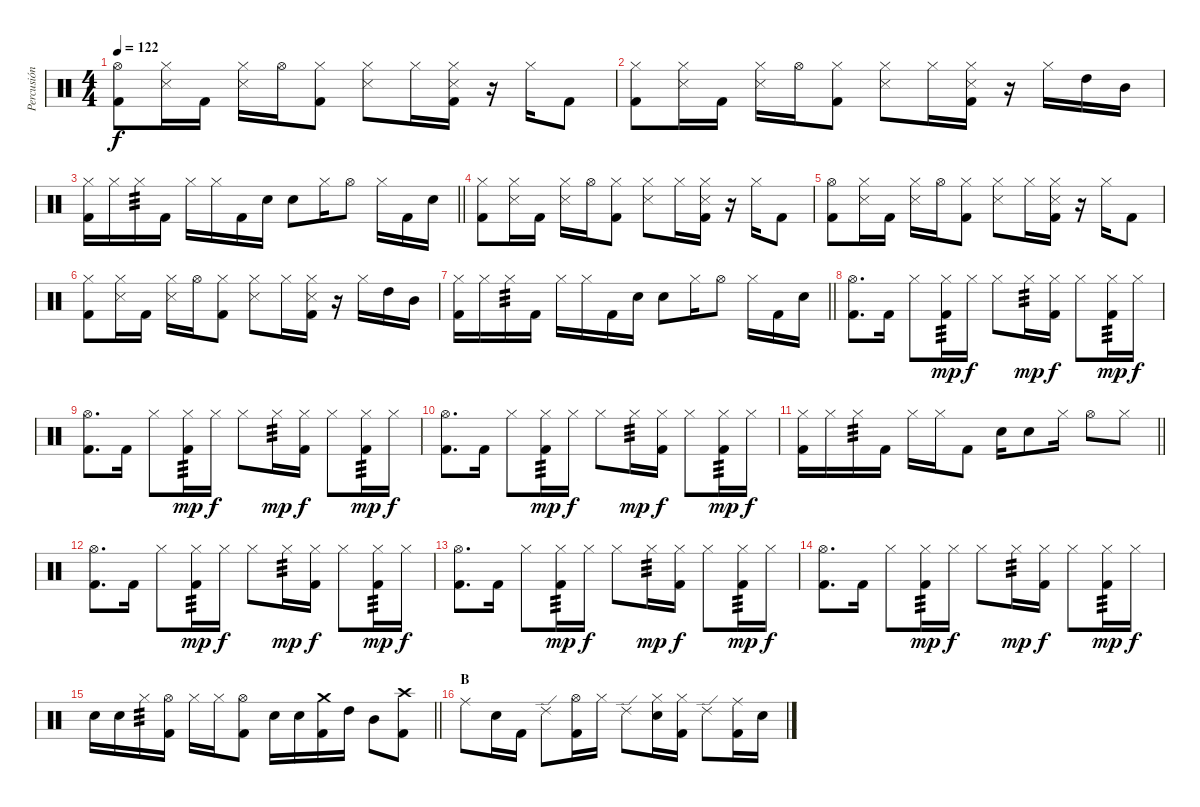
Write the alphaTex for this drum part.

\track ("Percusión" "Percusión") {instrument percussion}
\staff {score}
\articulation defaults
\ts (4 4)
\tempo 122
\clef neutral
\ks c
("Hi-Hat (open)" "Kick (hit) 2").8{dy f} ("Hi-Hat (closed)" "Snare (side stick) 3").16 "Kick (hit) 2".16 ("Hi-Hat (closed)" "Snare (side stick) 3").16 "Hi-Hat (open)".16 ("Hi-Hat (closed)" "Kick (hit) 2").8 ("Hi-Hat (closed)" "Snare (side stick) 3").8 "Hi-Hat (closed)".16 ("Snare (side stick) 3" "Hi-Hat (closed)" "Kick (hit) 2").16 r.16 "Hi-Hat (closed)".16 "Kick (hit) 2".8 |
("Hi-Hat (closed)" "Kick (hit) 2").8 ("Hi-Hat (closed)" "Snare (side stick) 3").16 "Kick (hit) 2".16 ("Hi-Hat (closed)" "Snare (side stick) 3").16 "Hi-Hat (open)".16 ("Hi-Hat (closed)" "Kick (hit) 2").8 ("Hi-Hat (closed)" "Snare (side stick) 3").8 "Hi-Hat (closed)".16 ("Snare (side stick) 3" "Hi-Hat (closed)" "Kick (hit) 2").16 r.16 "Hi-Hat (closed)".16 "High Tom (hit)".16 "Mid Tom (hit)".16 |
\barLineRight lightlight
("Hi-Hat (closed)" "Kick (hit) 2").16 "Hi-Hat (closed)".16 "Hi-Hat (closed)".16{tp 3} "Kick (hit) 2".16 "Hi-Hat (closed)".16 "Hi-Hat (closed)".16 "Kick (hit) 2".16 "Electric Snare (hit)".16 "Electric Snare (hit)".8 "Hi-Hat (closed)".16 "Hi-Hat (open)".8 "Hi-Hat (closed)".16 "Kick (hit) 2".16 "Electric Snare (hit)".16 |
("Hi-Hat (closed)" "Kick (hit) 2").8 ("Hi-Hat (closed)" "Snare (side stick) 3").16 "Kick (hit) 2".16 ("Hi-Hat (closed)" "Snare (side stick) 3").16 "Hi-Hat (open)".16 ("Hi-Hat (closed)" "Kick (hit) 2").8 ("Hi-Hat (closed)" "Snare (side stick) 3").8 "Hi-Hat (closed)".16 ("Snare (side stick) 3" "Hi-Hat (closed)" "Kick (hit) 2").16 r.16 "Hi-Hat (closed)".16 "Kick (hit) 2".8 |
("Hi-Hat (open)" "Kick (hit) 2").8 ("Hi-Hat (closed)" "Snare (side stick) 3").16 "Kick (hit) 2".16 ("Hi-Hat (closed)" "Snare (side stick) 3").16 "Hi-Hat (open)".16 ("Hi-Hat (closed)" "Kick (hit) 2").8 ("Hi-Hat (closed)" "Snare (side stick) 3").8 "Hi-Hat (closed)".16 ("Snare (side stick) 3" "Hi-Hat (closed)" "Kick (hit) 2").16 r.16 "Hi-Hat (closed)".16 "Kick (hit) 2".8 |
("Hi-Hat (closed)" "Kick (hit) 2").8 ("Hi-Hat (closed)" "Snare (side stick) 3").16 "Kick (hit) 2".16 ("Hi-Hat (closed)" "Snare (side stick) 3").16 "Hi-Hat (open)".16 ("Hi-Hat (closed)" "Kick (hit) 2").8 ("Hi-Hat (closed)" "Snare (side stick) 3").8 "Hi-Hat (closed)".16 ("Snare (side stick) 3" "Hi-Hat (closed)" "Kick (hit) 2").16 r.16 "Hi-Hat (closed)".16 "High Tom (hit)".16 "Mid Tom (hit)".16 |
\barLineRight lightlight
("Hi-Hat (closed)" "Kick (hit) 2").16 "Hi-Hat (closed)".16 "Hi-Hat (closed)".16{tp 3} "Kick (hit) 2".16 "Hi-Hat (closed)".16 "Hi-Hat (closed)".16 "Kick (hit) 2".16 "Electric Snare (hit)".16 "Electric Snare (hit)".8 "Hi-Hat (closed)".16 "Hi-Hat (open)".8 "Hi-Hat (closed)".16 "Kick (hit) 2".16 "Electric Snare (hit)".16 |
("Hi-Hat (open)" "Kick (hit) 2").8{d} "Kick (hit) 2".16 "Hi-Hat (closed)".8 ("Kick (hit) 2" "Hi-Hat (closed)").16{tp 3 dy mp} "Hi-Hat (closed)".16{dy f} "Hi-Hat (closed)".8 "Hi-Hat (closed)".16{tp 3 dy mp} ("Kick (hit) 2" "Hi-Hat (closed)").16{dy f} "Hi-Hat (closed)".8 ("Kick (hit) 2" "Hi-Hat (closed)").16{tp 3 dy mp} "Hi-Hat (closed)".16{dy f} |
("Hi-Hat (open)" "Kick (hit) 2").8{d} "Kick (hit) 2".16 "Hi-Hat (closed)".8 ("Kick (hit) 2" "Hi-Hat (closed)").16{tp 3 dy mp} "Hi-Hat (closed)".16{dy f} "Hi-Hat (closed)".8 "Hi-Hat (closed)".16{tp 3 dy mp} ("Kick (hit) 2" "Hi-Hat (closed)").16{dy f} "Hi-Hat (closed)".8 ("Kick (hit) 2" "Hi-Hat (closed)").16{tp 3 dy mp} "Hi-Hat (closed)".16{dy f} |
("Hi-Hat (open)" "Kick (hit) 2").8{d} "Kick (hit) 2".16 "Hi-Hat (closed)".8 ("Kick (hit) 2" "Hi-Hat (closed)").16{tp 3 dy mp} "Hi-Hat (closed)".16{dy f} "Hi-Hat (closed)".8 "Hi-Hat (closed)".16{tp 3 dy mp} ("Kick (hit) 2" "Hi-Hat (closed)").16{dy f} "Hi-Hat (closed)".8 ("Kick (hit) 2" "Hi-Hat (closed)").16{tp 3 dy mp} "Hi-Hat (closed)".16{dy f} |
\barLineRight lightlight
("Hi-Hat (closed)" "Kick (hit) 2").16 "Hi-Hat (closed)".16 "Hi-Hat (closed)".16{tp 3} "Kick (hit) 2".16 "Hi-Hat (closed)".16 "Hi-Hat (closed)".16 "Kick (hit) 2".8 "Electric Snare (hit)".16 "Electric Snare (hit)".8 "Hi-Hat (closed)".16 "Hi-Hat (open)".8 "Hi-Hat (closed)".8 |
("Hi-Hat (open)" "Kick (hit) 2").8{d} "Kick (hit) 2".16 "Hi-Hat (closed)".8 ("Kick (hit) 2" "Hi-Hat (closed)").16{tp 3 dy mp} "Hi-Hat (closed)".16{dy f} "Hi-Hat (closed)".8 "Hi-Hat (closed)".16{tp 3 dy mp} ("Kick (hit) 2" "Hi-Hat (closed)").16{dy f} "Hi-Hat (closed)".8 ("Kick (hit) 2" "Hi-Hat (closed)").16{tp 3 dy mp} "Hi-Hat (closed)".16{dy f} |
("Hi-Hat (open)" "Kick (hit) 2").8{d} "Kick (hit) 2".16 "Hi-Hat (closed)".8 ("Kick (hit) 2" "Hi-Hat (closed)").16{tp 3 dy mp} "Hi-Hat (closed)".16{dy f} "Hi-Hat (closed)".8 "Hi-Hat (closed)".16{tp 3 dy mp} ("Kick (hit) 2" "Hi-Hat (closed)").16{dy f} "Hi-Hat (closed)".8 ("Kick (hit) 2" "Hi-Hat (closed)").16{tp 3 dy mp} "Hi-Hat (closed)".16{dy f} |
("Hi-Hat (open)" "Kick (hit) 2").8{d} "Kick (hit) 2".16 "Hi-Hat (closed)".8 ("Kick (hit) 2" "Hi-Hat (closed)").16{tp 3 dy mp} "Hi-Hat (closed)".16{dy f} "Hi-Hat (closed)".8 "Hi-Hat (closed)".16{tp 3 dy mp} ("Kick (hit) 2" "Hi-Hat (closed)").16{dy f} "Hi-Hat (closed)".8 ("Kick (hit) 2" "Hi-Hat (closed)").16{tp 3 dy mp} "Hi-Hat (closed)".16{dy f} |
\barLineRight lightlight "Electric Snare (hit)".16 "Electric Snare (hit)".16 "Hi-Hat (closed)".16{tp 3}
("Hi-Hat (open)" "Kick (hit) 2").16 "Hi-Hat (closed)".16 "Hi-Hat (closed)".16 ("Hi-Hat (open)" "Kick (hit) 2").8 "Electric Snare (hit)".16 "Electric Snare (hit)".16 ("Crash medium (hit)" "Kick (hit) 2").16 "High Tom (hit)".16 "Mid Tom (hit)".8 ("Crash high (hit)" "Kick (hit) 2").8 |
\section ("" "B")
"Ride (middle)".8 "Electric Snare (hit)".16 "Kick (hit) 2".16 "Ride (edge) 2".8 ("Hi-Hat (open)" "Kick (hit) 2").16 "Hi-Hat (closed)".16 "Ride (edge) 2".8 ("Electric Snare (hit)" "Hi-Hat (closed)").16 ("Kick (hit) 2" "Hi-Hat (closed)").16 "Ride (edge) 2".8 ("Ride (middle)" "Kick (hit) 2").16 "Electric Snare (hit)".16
